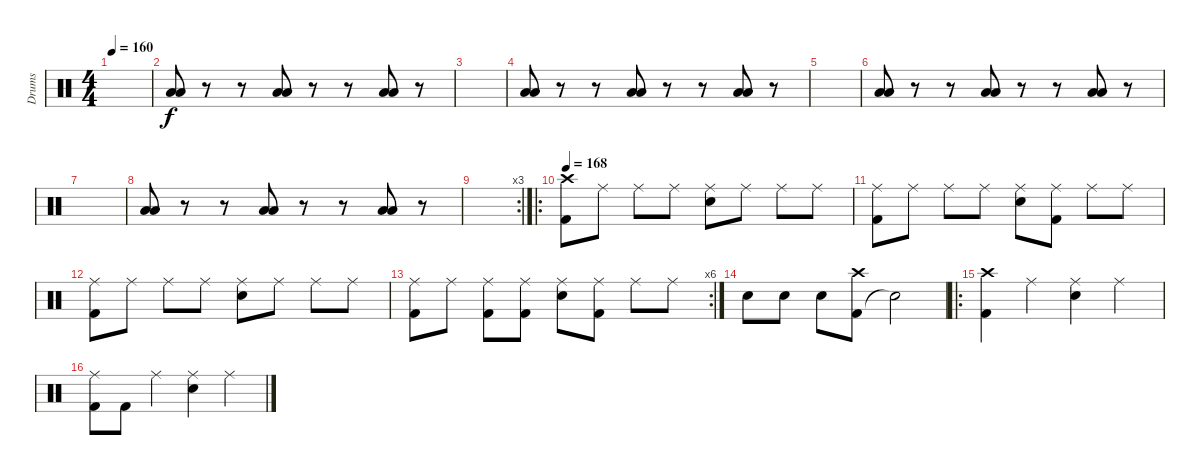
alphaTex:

\track ("Drums" "Drums") {instrument percussion}
\staff {score}
\articulation defaults
\ts (4 4)
\tempo 160
\clef neutral
\ks c
|
("Low Floor Tom (hit)" "Low Floor Tom (hit)").8 r.8 r.8 ("Low Floor Tom (hit)" "Low Floor Tom (hit)").8 r.8 r.8 ("Low Floor Tom (hit)" "Low Floor Tom (hit)").8 r.8 |
|
("Low Floor Tom (hit)" "Low Floor Tom (hit)").8 r.8 r.8 ("Low Floor Tom (hit)" "Low Floor Tom (hit)").8 r.8 r.8 ("Low Floor Tom (hit)" "Low Floor Tom (hit)").8 r.8 |
|
("Low Floor Tom (hit)" "Low Floor Tom (hit)").8 r.8 r.8 ("Low Floor Tom (hit)" "Low Floor Tom (hit)").8 r.8 r.8 ("Low Floor Tom (hit)" "Low Floor Tom (hit)").8 r.8 |
|
("Low Floor Tom (hit)" "Low Floor Tom (hit)").8 r.8 r.8 ("Low Floor Tom (hit)" "Low Floor Tom (hit)").8 r.8 r.8 ("Low Floor Tom (hit)" "Low Floor Tom (hit)").8 r.8 |
\rc 3
|
\ro
\tempo 168
("Kick (hit) 2" "Crash high (hit)").8 "Ride (middle)".8 "Ride (middle)".8 "Ride (middle)".8 ("Snare (hit) 2" "Ride (middle)").8 "Ride (middle)".8 "Ride (middle)".8 "Ride (middle)".8 |
("Kick (hit) 2" "Ride (middle)").8 "Ride (middle)".8 "Ride (middle)".8 "Ride (middle)".8 ("Snare (hit) 2" "Ride (middle)").8 ("Kick (hit) 2" "Ride (middle)").8 "Ride (middle)".8 "Ride (middle)".8 |
("Kick (hit) 2" "Ride (middle)").8 "Ride (middle)".8 "Ride (middle)".8 "Ride (middle)".8 ("Snare (hit) 2" "Ride (middle)").8 "Ride (middle)".8 "Ride (middle)".8 "Ride (middle)".8 |
\rc 6
("Kick (hit) 2" "Ride (middle)").8 "Ride (middle)".8 ("Kick (hit) 2" "Ride (middle)").8 ("Kick (hit) 2" "Ride (middle)").8 ("Snare (hit) 2" "Ride (middle)").8 ("Kick (hit) 2" "Ride (middle)").8 "Ride (middle)".8 "Ride (middle)".8 |
"Snare (hit) 2".8 "Snare (hit) 2".8 "Snare (hit) 2".8 ("Kick (hit) 2" "Crash high (hit)").8 "Snare (hit)"{t}.2 |
\ro
("Kick (hit) 2" "Crash high (hit)").4 "Ride (middle)".4 ("Snare (hit) 2" "Ride (middle)").4 "Ride (middle)".4 |
("Kick (hit) 2" "Ride (middle)").8 "Kick (hit) 2".8 "Ride (middle)".4 ("Snare (hit) 2" "Ride (middle)").4 "Ride (middle)".4
